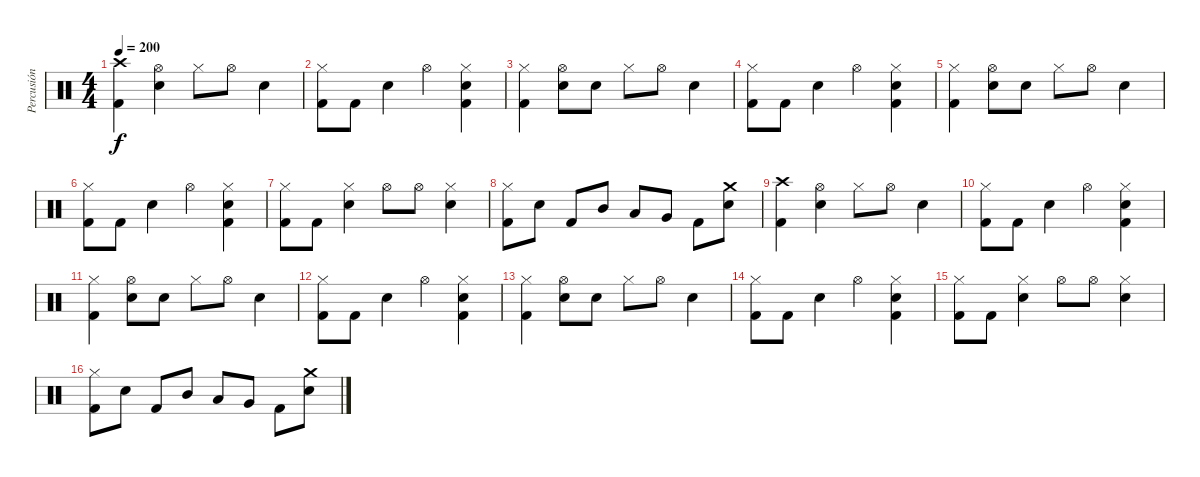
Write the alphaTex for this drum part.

\track ("Percusión" "Percusión") {instrument percussion}
\staff {score}
\articulation defaults
\ts (4 4)
\tempo 200
\clef neutral
\ks c
("Crash high (hit)" "Kick (hit) 2").4{dy f} ("Hi-Hat (open)" "Electric Snare (hit)").4 "Hi-Hat (closed)".8 "Hi-Hat (open)".8 "Electric Snare (hit)".4 |
("Hi-Hat (closed)" "Kick (hit) 2").8 "Kick (hit) 2".8 "Electric Snare (hit)".4 "Hi-Hat (open)".4 ("Hi-Hat (closed)" "Kick (hit) 2" "Electric Snare (hit)").4 |
("Hi-Hat (closed)" "Kick (hit) 2").4 ("Hi-Hat (open)" "Electric Snare (hit)").8 "Electric Snare (hit)".8 "Hi-Hat (closed)".8 "Hi-Hat (open)".8 "Electric Snare (hit)".4 |
("Hi-Hat (closed)" "Kick (hit) 2").8 "Kick (hit) 2".8 "Electric Snare (hit)".4 "Hi-Hat (open)".4 ("Hi-Hat (closed)" "Kick (hit) 2" "Electric Snare (hit)").4 |
("Hi-Hat (closed)" "Kick (hit) 2").4 ("Hi-Hat (open)" "Electric Snare (hit)").8 "Electric Snare (hit)".8 "Hi-Hat (closed)".8 "Hi-Hat (open)".8 "Electric Snare (hit)".4 |
("Hi-Hat (closed)" "Kick (hit) 2").8 "Kick (hit) 2".8 "Electric Snare (hit)".4 "Hi-Hat (open)".4 ("Hi-Hat (closed)" "Kick (hit) 2" "Electric Snare (hit)").4 |
("Hi-Hat (closed)" "Kick (hit) 2").8 "Kick (hit) 2".8 ("Hi-Hat (closed)" "Electric Snare (hit)").4 "Hi-Hat (open)".8 "Hi-Hat (open)".8 ("Hi-Hat (closed)" "Electric Snare (hit)").4 |
("Hi-Hat (closed)" "Kick (hit) 2").8 "Electric Snare (hit)".8 "Kick (hit) 2".8 "Mid Tom (hit)".8 "Low Tom (hit)".8 "Very Low Tom (hit)".8 "Kick (hit) 2".8 ("Crash medium (hit)" "Electric Snare (hit)").8 |
("Crash high (hit)" "Kick (hit) 2").4 ("Hi-Hat (open)" "Electric Snare (hit)").4 "Hi-Hat (closed)".8 "Hi-Hat (open)".8 "Electric Snare (hit)".4 |
("Hi-Hat (closed)" "Kick (hit) 2").8 "Kick (hit) 2".8 "Electric Snare (hit)".4 "Hi-Hat (open)".4 ("Hi-Hat (closed)" "Kick (hit) 2" "Electric Snare (hit)").4 |
("Hi-Hat (closed)" "Kick (hit) 2").4 ("Hi-Hat (open)" "Electric Snare (hit)").8 "Electric Snare (hit)".8 "Hi-Hat (closed)".8 "Hi-Hat (open)".8 "Electric Snare (hit)".4 |
("Hi-Hat (closed)" "Kick (hit) 2").8 "Kick (hit) 2".8 "Electric Snare (hit)".4 "Hi-Hat (open)".4 ("Hi-Hat (closed)" "Kick (hit) 2" "Electric Snare (hit)").4 |
("Hi-Hat (closed)" "Kick (hit) 2").4 ("Hi-Hat (open)" "Electric Snare (hit)").8 "Electric Snare (hit)".8 "Hi-Hat (closed)".8 "Hi-Hat (open)".8 "Electric Snare (hit)".4 |
("Hi-Hat (closed)" "Kick (hit) 2").8 "Kick (hit) 2".8 "Electric Snare (hit)".4 "Hi-Hat (open)".4 ("Hi-Hat (closed)" "Kick (hit) 2" "Electric Snare (hit)").4 |
("Hi-Hat (closed)" "Kick (hit) 2").8 "Kick (hit) 2".8 ("Hi-Hat (closed)" "Electric Snare (hit)").4 "Hi-Hat (open)".8 "Hi-Hat (open)".8 ("Hi-Hat (closed)" "Electric Snare (hit)").4 |
("Hi-Hat (closed)" "Kick (hit) 2").8 "Electric Snare (hit)".8 "Kick (hit) 2".8 "Mid Tom (hit)".8 "Low Tom (hit)".8 "Very Low Tom (hit)".8 "Kick (hit) 2".8 ("Crash medium (hit)" "Electric Snare (hit)").8
